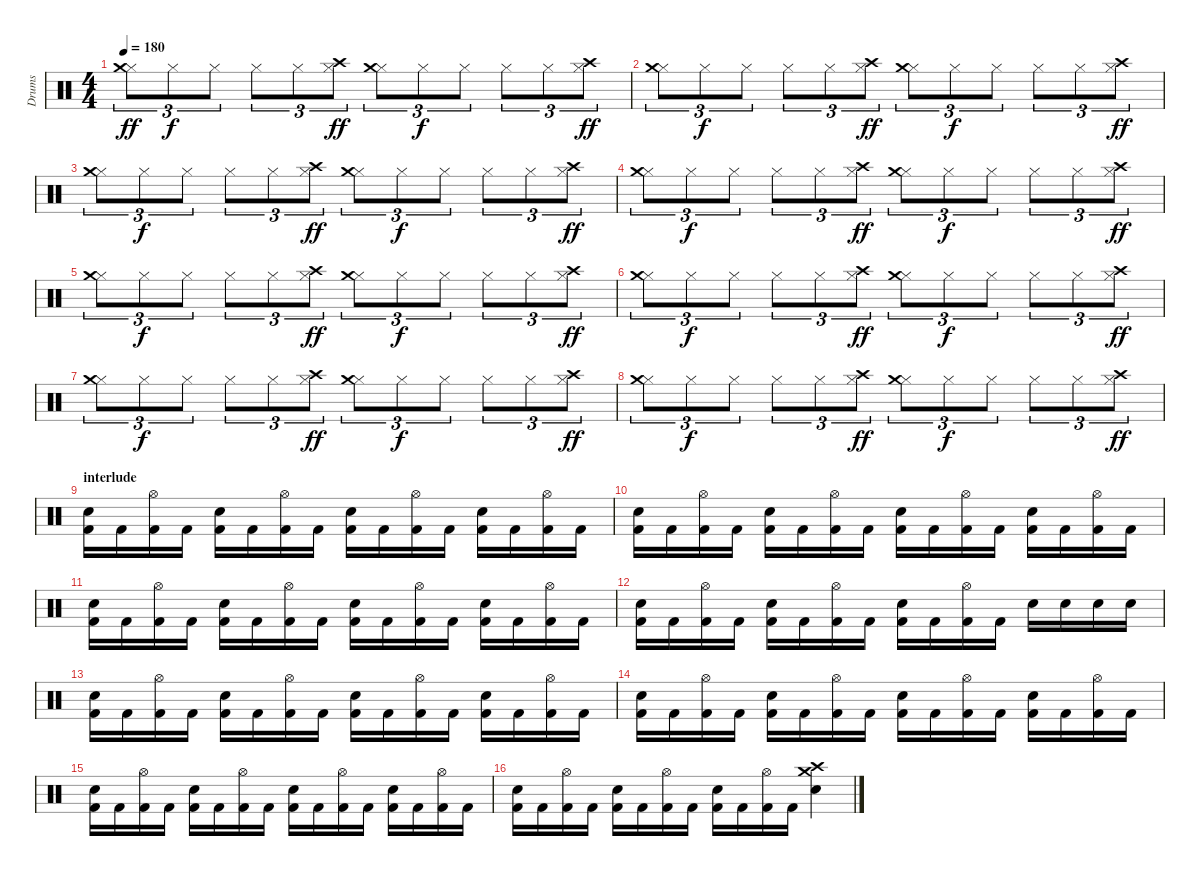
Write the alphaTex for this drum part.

\track ("Drums" "Drums") {instrument percussion}
\staff {score}
\articulation defaults
\ts (4 4)
\tempo 180
\clef neutral
\ks c
("Hi-Hat (closed)" "Crash medium (hit)").8{tu (3 2) dy ff} "Hi-Hat (closed)".8{tu (3 2) dy f} "Hi-Hat (closed)".8{tu (3 2)} "Hi-Hat (closed)".8{tu (3 2)} "Hi-Hat (closed)".8{tu (3 2)} ("Hi-Hat (closed)" "Crash high (hit)").8{tu (3 2) dy ff} ("Hi-Hat (closed)" "Crash medium (hit)").8{tu (3 2)} "Hi-Hat (closed)".8{tu (3 2) dy f} "Hi-Hat (closed)".8{tu (3 2)} "Hi-Hat (closed)".8{tu (3 2)} "Hi-Hat (closed)".8{tu (3 2)} ("Hi-Hat (closed)" "Crash high (hit)").8{tu (3 2) dy ff} |
("Hi-Hat (closed)" "Crash medium (hit)").8{tu (3 2)} "Hi-Hat (closed)".8{tu (3 2) dy f} "Hi-Hat (closed)".8{tu (3 2)} "Hi-Hat (closed)".8{tu (3 2)} "Hi-Hat (closed)".8{tu (3 2)} ("Hi-Hat (closed)" "Crash high (hit)").8{tu (3 2) dy ff} ("Hi-Hat (closed)" "Crash medium (hit)").8{tu (3 2)} "Hi-Hat (closed)".8{tu (3 2) dy f} "Hi-Hat (closed)".8{tu (3 2)} "Hi-Hat (closed)".8{tu (3 2)} "Hi-Hat (closed)".8{tu (3 2)} ("Hi-Hat (closed)" "Crash high (hit)").8{tu (3 2) dy ff} |
("Hi-Hat (closed)" "Crash medium (hit)").8{tu (3 2)} "Hi-Hat (closed)".8{tu (3 2) dy f} "Hi-Hat (closed)".8{tu (3 2)} "Hi-Hat (closed)".8{tu (3 2)} "Hi-Hat (closed)".8{tu (3 2)} ("Hi-Hat (closed)" "Crash high (hit)").8{tu (3 2) dy ff} ("Hi-Hat (closed)" "Crash medium (hit)").8{tu (3 2)} "Hi-Hat (closed)".8{tu (3 2) dy f} "Hi-Hat (closed)".8{tu (3 2)} "Hi-Hat (closed)".8{tu (3 2)} "Hi-Hat (closed)".8{tu (3 2)} ("Hi-Hat (closed)" "Crash high (hit)").8{tu (3 2) dy ff} |
("Hi-Hat (closed)" "Crash medium (hit)").8{tu (3 2)} "Hi-Hat (closed)".8{tu (3 2) dy f} "Hi-Hat (closed)".8{tu (3 2)} "Hi-Hat (closed)".8{tu (3 2)} "Hi-Hat (closed)".8{tu (3 2)} ("Hi-Hat (closed)" "Crash high (hit)").8{tu (3 2) dy ff} ("Hi-Hat (closed)" "Crash medium (hit)").8{tu (3 2)} "Hi-Hat (closed)".8{tu (3 2) dy f} "Hi-Hat (closed)".8{tu (3 2)} "Hi-Hat (closed)".8{tu (3 2)} "Hi-Hat (closed)".8{tu (3 2)} ("Hi-Hat (closed)" "Crash high (hit)").8{tu (3 2) dy ff} |
("Hi-Hat (closed)" "Crash medium (hit)").8{tu (3 2)} "Hi-Hat (closed)".8{tu (3 2) dy f} "Hi-Hat (closed)".8{tu (3 2)} "Hi-Hat (closed)".8{tu (3 2)} "Hi-Hat (closed)".8{tu (3 2)} ("Hi-Hat (closed)" "Crash high (hit)").8{tu (3 2) dy ff} ("Hi-Hat (closed)" "Crash medium (hit)").8{tu (3 2)} "Hi-Hat (closed)".8{tu (3 2) dy f} "Hi-Hat (closed)".8{tu (3 2)} "Hi-Hat (closed)".8{tu (3 2)} "Hi-Hat (closed)".8{tu (3 2)} ("Hi-Hat (closed)" "Crash high (hit)").8{tu (3 2) dy ff} |
("Hi-Hat (closed)" "Crash medium (hit)").8{tu (3 2)} "Hi-Hat (closed)".8{tu (3 2) dy f} "Hi-Hat (closed)".8{tu (3 2)} "Hi-Hat (closed)".8{tu (3 2)} "Hi-Hat (closed)".8{tu (3 2)} ("Hi-Hat (closed)" "Crash high (hit)").8{tu (3 2) dy ff} ("Hi-Hat (closed)" "Crash medium (hit)").8{tu (3 2)} "Hi-Hat (closed)".8{tu (3 2) dy f} "Hi-Hat (closed)".8{tu (3 2)} "Hi-Hat (closed)".8{tu (3 2)} "Hi-Hat (closed)".8{tu (3 2)} ("Hi-Hat (closed)" "Crash high (hit)").8{tu (3 2) dy ff} |
("Hi-Hat (closed)" "Crash medium (hit)").8{tu (3 2)} "Hi-Hat (closed)".8{tu (3 2) dy f} "Hi-Hat (closed)".8{tu (3 2)} "Hi-Hat (closed)".8{tu (3 2)} "Hi-Hat (closed)".8{tu (3 2)} ("Hi-Hat (closed)" "Crash high (hit)").8{tu (3 2) dy ff} ("Hi-Hat (closed)" "Crash medium (hit)").8{tu (3 2)} "Hi-Hat (closed)".8{tu (3 2) dy f} "Hi-Hat (closed)".8{tu (3 2)} "Hi-Hat (closed)".8{tu (3 2)} "Hi-Hat (closed)".8{tu (3 2)} ("Hi-Hat (closed)" "Crash high (hit)").8{tu (3 2) dy ff} |
("Hi-Hat (closed)" "Crash medium (hit)").8{tu (3 2)} "Hi-Hat (closed)".8{tu (3 2) dy f} "Hi-Hat (closed)".8{tu (3 2)} "Hi-Hat (closed)".8{tu (3 2)} "Hi-Hat (closed)".8{tu (3 2)} ("Hi-Hat (closed)" "Crash high (hit)").8{tu (3 2) dy ff} ("Hi-Hat (closed)" "Crash medium (hit)").8{tu (3 2)} "Hi-Hat (closed)".8{tu (3 2) dy f} "Hi-Hat (closed)".8{tu (3 2)} "Hi-Hat (closed)".8{tu (3 2)} "Hi-Hat (closed)".8{tu (3 2)} ("Hi-Hat (closed)" "Crash high (hit)").8{tu (3 2) dy ff} |
\section ("" "interlude")
("Electric Snare (hit)" "Kick (hit) 2").16 "Kick (hit) 2".16 ("Hi-Hat (open)" "Kick (hit) 2").16 "Kick (hit) 2".16 ("Electric Snare (hit)" "Kick (hit) 2").16 "Kick (hit) 2".16 ("Hi-Hat (open)" "Kick (hit) 2").16 "Kick (hit) 2".16 ("Electric Snare (hit)" "Kick (hit) 2").16 "Kick (hit) 2".16 ("Hi-Hat (open)" "Kick (hit) 2").16 "Kick (hit) 2".16 ("Electric Snare (hit)" "Kick (hit) 2").16 "Kick (hit) 2".16 ("Hi-Hat (open)" "Kick (hit) 2").16 "Kick (hit) 2".16 |
("Electric Snare (hit)" "Kick (hit) 2").16 "Kick (hit) 2".16 ("Hi-Hat (open)" "Kick (hit) 2").16 "Kick (hit) 2".16 ("Electric Snare (hit)" "Kick (hit) 2").16 "Kick (hit) 2".16 ("Hi-Hat (open)" "Kick (hit) 2").16 "Kick (hit) 2".16 ("Electric Snare (hit)" "Kick (hit) 2").16 "Kick (hit) 2".16 ("Hi-Hat (open)" "Kick (hit) 2").16 "Kick (hit) 2".16 ("Electric Snare (hit)" "Kick (hit) 2").16 "Kick (hit) 2".16 ("Hi-Hat (open)" "Kick (hit) 2").16 "Kick (hit) 2".16 |
("Electric Snare (hit)" "Kick (hit) 2").16 "Kick (hit) 2".16 ("Hi-Hat (open)" "Kick (hit) 2").16 "Kick (hit) 2".16 ("Electric Snare (hit)" "Kick (hit) 2").16 "Kick (hit) 2".16 ("Hi-Hat (open)" "Kick (hit) 2").16 "Kick (hit) 2".16 ("Electric Snare (hit)" "Kick (hit) 2").16 "Kick (hit) 2".16 ("Hi-Hat (open)" "Kick (hit) 2").16 "Kick (hit) 2".16 ("Electric Snare (hit)" "Kick (hit) 2").16 "Kick (hit) 2".16 ("Hi-Hat (open)" "Kick (hit) 2").16 "Kick (hit) 2".16 |
("Electric Snare (hit)" "Kick (hit) 2").16 "Kick (hit) 2".16 ("Hi-Hat (open)" "Kick (hit) 2").16 "Kick (hit) 2".16 ("Electric Snare (hit)" "Kick (hit) 2").16 "Kick (hit) 2".16 ("Hi-Hat (open)" "Kick (hit) 2").16 "Kick (hit) 2".16 ("Electric Snare (hit)" "Kick (hit) 2").16 "Kick (hit) 2".16 ("Hi-Hat (open)" "Kick (hit) 2").16 "Kick (hit) 2".16 "Electric Snare (hit)".16 "Electric Snare (hit)".16 "Electric Snare (hit)".16 "Electric Snare (hit)".16 |
("Electric Snare (hit)" "Kick (hit) 2").16 "Kick (hit) 2".16 ("Hi-Hat (open)" "Kick (hit) 2").16 "Kick (hit) 2".16 ("Electric Snare (hit)" "Kick (hit) 2").16 "Kick (hit) 2".16 ("Hi-Hat (open)" "Kick (hit) 2").16 "Kick (hit) 2".16 ("Electric Snare (hit)" "Kick (hit) 2").16 "Kick (hit) 2".16 ("Hi-Hat (open)" "Kick (hit) 2").16 "Kick (hit) 2".16 ("Electric Snare (hit)" "Kick (hit) 2").16 "Kick (hit) 2".16 ("Hi-Hat (open)" "Kick (hit) 2").16 "Kick (hit) 2".16 |
("Electric Snare (hit)" "Kick (hit) 2").16 "Kick (hit) 2".16 ("Hi-Hat (open)" "Kick (hit) 2").16 "Kick (hit) 2".16 ("Electric Snare (hit)" "Kick (hit) 2").16 "Kick (hit) 2".16 ("Hi-Hat (open)" "Kick (hit) 2").16 "Kick (hit) 2".16 ("Electric Snare (hit)" "Kick (hit) 2").16 "Kick (hit) 2".16 ("Hi-Hat (open)" "Kick (hit) 2").16 "Kick (hit) 2".16 ("Electric Snare (hit)" "Kick (hit) 2").16 "Kick (hit) 2".16 ("Hi-Hat (open)" "Kick (hit) 2").16 "Kick (hit) 2".16 |
("Electric Snare (hit)" "Kick (hit) 2").16 "Kick (hit) 2".16 ("Hi-Hat (open)" "Kick (hit) 2").16 "Kick (hit) 2".16 ("Electric Snare (hit)" "Kick (hit) 2").16 "Kick (hit) 2".16 ("Hi-Hat (open)" "Kick (hit) 2").16 "Kick (hit) 2".16 ("Electric Snare (hit)" "Kick (hit) 2").16 "Kick (hit) 2".16 ("Hi-Hat (open)" "Kick (hit) 2").16 "Kick (hit) 2".16 ("Electric Snare (hit)" "Kick (hit) 2").16 "Kick (hit) 2".16 ("Hi-Hat (open)" "Kick (hit) 2").16 "Kick (hit) 2".16 |
("Electric Snare (hit)" "Kick (hit) 2").16 "Kick (hit) 2".16 ("Hi-Hat (open)" "Kick (hit) 2").16 "Kick (hit) 2".16 ("Electric Snare (hit)" "Kick (hit) 2").16 "Kick (hit) 2".16 ("Hi-Hat (open)" "Kick (hit) 2").16 "Kick (hit) 2".16 ("Electric Snare (hit)" "Kick (hit) 2").16 "Kick (hit) 2".16 ("Hi-Hat (open)" "Kick (hit) 2").16 "Kick (hit) 2".16 ("Crash high (hit)" "Crash medium (hit)" "Electric Snare (hit)").4
